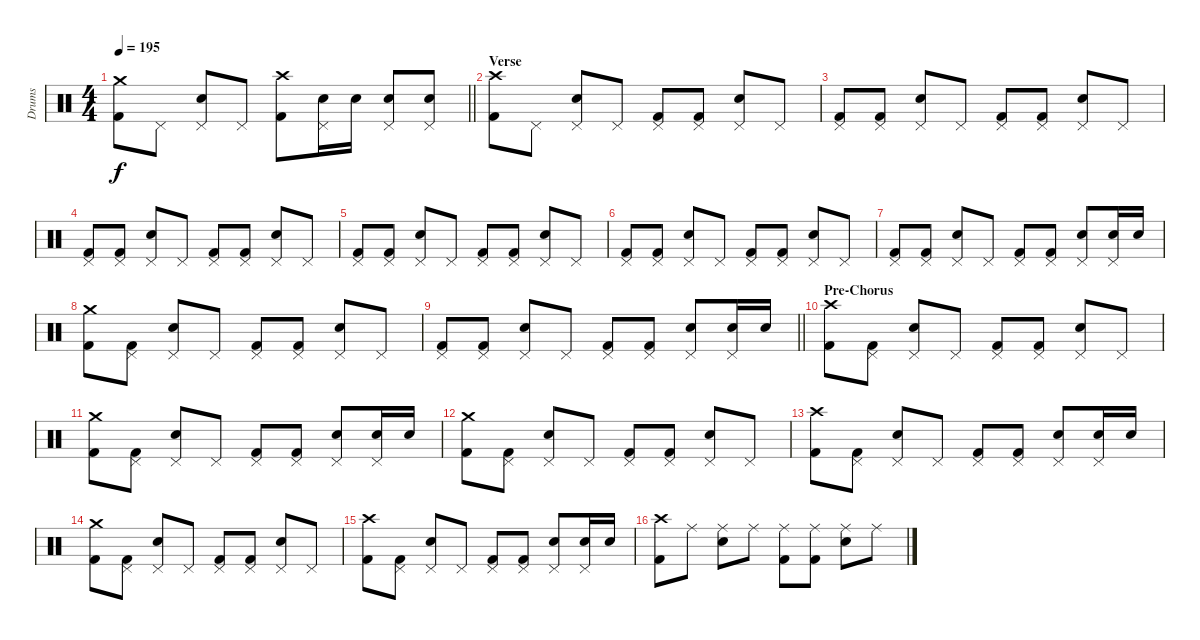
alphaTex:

\track ("Drums" "Drums") {instrument percussion}
\staff {score}
\articulation defaults
\ts (4 4)
\tempo 195
\clef neutral
\barLineRight lightlight
\ks c
("Crash medium (hit)" "Kick (hit) 2").8{dy f} "Pedal Hi-Hat (hit)".8 ("Pedal Hi-Hat (hit)" "Electric Snare (hit)").8 "Pedal Hi-Hat (hit)".8 ("Crash high (hit)" "Kick (hit) 2").8 ("Pedal Hi-Hat (hit)" "Electric Snare (hit)").16 "Electric Snare (hit)".16 ("Pedal Hi-Hat (hit)" "Electric Snare (hit)").8 ("Pedal Hi-Hat (hit)" "Electric Snare (hit)").8 |
\section ("" "Verse")
("Crash high (hit)" "Kick (hit) 2").8 "Pedal Hi-Hat (hit)".8 ("Pedal Hi-Hat (hit)" "Electric Snare (hit)").8 "Pedal Hi-Hat (hit)".8 ("Pedal Hi-Hat (hit)" "Kick (hit) 2").8 ("Pedal Hi-Hat (hit)" "Kick (hit) 2").8 ("Pedal Hi-Hat (hit)" "Electric Snare (hit)").8 "Pedal Hi-Hat (hit)".8 |
("Pedal Hi-Hat (hit)" "Kick (hit) 2").8 ("Pedal Hi-Hat (hit)" "Kick (hit) 2").8 ("Pedal Hi-Hat (hit)" "Electric Snare (hit)").8 "Pedal Hi-Hat (hit)".8 ("Pedal Hi-Hat (hit)" "Kick (hit) 2").8 ("Pedal Hi-Hat (hit)" "Kick (hit) 2").8 ("Pedal Hi-Hat (hit)" "Electric Snare (hit)").8 "Pedal Hi-Hat (hit)".8 |
("Pedal Hi-Hat (hit)" "Kick (hit) 2").8 ("Pedal Hi-Hat (hit)" "Kick (hit) 2").8 ("Pedal Hi-Hat (hit)" "Electric Snare (hit)").8 "Pedal Hi-Hat (hit)".8 ("Pedal Hi-Hat (hit)" "Kick (hit) 2").8 ("Pedal Hi-Hat (hit)" "Kick (hit) 2").8 ("Pedal Hi-Hat (hit)" "Electric Snare (hit)").8 "Pedal Hi-Hat (hit)".8 |
("Pedal Hi-Hat (hit)" "Kick (hit) 2").8 ("Pedal Hi-Hat (hit)" "Kick (hit) 2").8 ("Pedal Hi-Hat (hit)" "Electric Snare (hit)").8 "Pedal Hi-Hat (hit)".8 ("Pedal Hi-Hat (hit)" "Kick (hit) 2").8 ("Pedal Hi-Hat (hit)" "Kick (hit) 2").8 ("Pedal Hi-Hat (hit)" "Electric Snare (hit)").8 "Pedal Hi-Hat (hit)".8 |
("Pedal Hi-Hat (hit)" "Kick (hit) 2").8 ("Pedal Hi-Hat (hit)" "Kick (hit) 2").8 ("Pedal Hi-Hat (hit)" "Electric Snare (hit)").8 "Pedal Hi-Hat (hit)".8 ("Pedal Hi-Hat (hit)" "Kick (hit) 2").8 ("Pedal Hi-Hat (hit)" "Kick (hit) 2").8 ("Pedal Hi-Hat (hit)" "Electric Snare (hit)").8 "Pedal Hi-Hat (hit)".8 |
("Pedal Hi-Hat (hit)" "Kick (hit) 2").8 ("Pedal Hi-Hat (hit)" "Kick (hit) 2").8 ("Pedal Hi-Hat (hit)" "Electric Snare (hit)").8 "Pedal Hi-Hat (hit)".8 ("Pedal Hi-Hat (hit)" "Kick (hit) 2").8 ("Pedal Hi-Hat (hit)" "Kick (hit) 2").8 ("Pedal Hi-Hat (hit)" "Electric Snare (hit)").8 ("Pedal Hi-Hat (hit)" "Electric Snare (hit)").16 "Electric Snare (hit)".16 |
("Crash medium (hit)" "Kick (hit) 2").8 ("Pedal Hi-Hat (hit)" "Kick (hit) 2").8 ("Pedal Hi-Hat (hit)" "Electric Snare (hit)").8 "Pedal Hi-Hat (hit)".8 ("Pedal Hi-Hat (hit)" "Kick (hit) 2").8 ("Pedal Hi-Hat (hit)" "Kick (hit) 2").8 ("Pedal Hi-Hat (hit)" "Electric Snare (hit)").8 "Pedal Hi-Hat (hit)".8 |
\barLineRight lightlight
("Pedal Hi-Hat (hit)" "Kick (hit) 2").8 ("Pedal Hi-Hat (hit)" "Kick (hit) 2").8 ("Pedal Hi-Hat (hit)" "Electric Snare (hit)").8 "Pedal Hi-Hat (hit)".8 ("Pedal Hi-Hat (hit)" "Kick (hit) 2").8 ("Pedal Hi-Hat (hit)" "Kick (hit) 2").8 ("Pedal Hi-Hat (hit)" "Electric Snare (hit)").8 ("Pedal Hi-Hat (hit)" "Electric Snare (hit)").16 "Electric Snare (hit)".16 |
\section ("" "Pre-Chorus")
("Crash high (hit)" "Kick (hit) 2").8 ("Pedal Hi-Hat (hit)" "Kick (hit) 2").8 ("Pedal Hi-Hat (hit)" "Electric Snare (hit)").8 "Pedal Hi-Hat (hit)".8 ("Pedal Hi-Hat (hit)" "Kick (hit) 2").8 ("Pedal Hi-Hat (hit)" "Kick (hit) 2").8 ("Pedal Hi-Hat (hit)" "Electric Snare (hit)").8 "Pedal Hi-Hat (hit)".8 |
("Crash medium (hit)" "Kick (hit) 2").8 ("Pedal Hi-Hat (hit)" "Kick (hit) 2").8 ("Pedal Hi-Hat (hit)" "Electric Snare (hit)").8 "Pedal Hi-Hat (hit)".8 ("Pedal Hi-Hat (hit)" "Kick (hit) 2").8 ("Pedal Hi-Hat (hit)" "Kick (hit) 2").8 ("Pedal Hi-Hat (hit)" "Electric Snare (hit)").8 ("Pedal Hi-Hat (hit)" "Electric Snare (hit)").16 "Electric Snare (hit)".16 |
("Crash medium (hit)" "Kick (hit) 2").8 ("Pedal Hi-Hat (hit)" "Kick (hit) 2").8 ("Pedal Hi-Hat (hit)" "Electric Snare (hit)").8 "Pedal Hi-Hat (hit)".8 ("Pedal Hi-Hat (hit)" "Kick (hit) 2").8 ("Pedal Hi-Hat (hit)" "Kick (hit) 2").8 ("Pedal Hi-Hat (hit)" "Electric Snare (hit)").8 "Pedal Hi-Hat (hit)".8 |
("Crash high (hit)" "Kick (hit) 2").8 ("Pedal Hi-Hat (hit)" "Kick (hit) 2").8 ("Pedal Hi-Hat (hit)" "Electric Snare (hit)").8 "Pedal Hi-Hat (hit)".8 ("Pedal Hi-Hat (hit)" "Kick (hit) 2").8 ("Pedal Hi-Hat (hit)" "Kick (hit) 2").8 ("Pedal Hi-Hat (hit)" "Electric Snare (hit)").8 ("Pedal Hi-Hat (hit)" "Electric Snare (hit)").16 "Electric Snare (hit)".16 |
("Crash medium (hit)" "Kick (hit) 2").8 ("Pedal Hi-Hat (hit)" "Kick (hit) 2").8 ("Pedal Hi-Hat (hit)" "Electric Snare (hit)").8 "Pedal Hi-Hat (hit)".8 ("Pedal Hi-Hat (hit)" "Kick (hit) 2").8 ("Pedal Hi-Hat (hit)" "Kick (hit) 2").8 ("Pedal Hi-Hat (hit)" "Electric Snare (hit)").8 "Pedal Hi-Hat (hit)".8 |
("Crash high (hit)" "Kick (hit) 2").8 ("Pedal Hi-Hat (hit)" "Kick (hit) 2").8 ("Pedal Hi-Hat (hit)" "Electric Snare (hit)").8 "Pedal Hi-Hat (hit)".8 ("Pedal Hi-Hat (hit)" "Kick (hit) 2").8 ("Pedal Hi-Hat (hit)" "Kick (hit) 2").8 ("Pedal Hi-Hat (hit)" "Electric Snare (hit)").8 ("Pedal Hi-Hat (hit)" "Electric Snare (hit)").16 "Electric Snare (hit)".16 |
("Crash high (hit)" "Kick (hit) 2").8 "Ride (middle)".8 ("Ride (middle)" "Electric Snare (hit)").8 "Ride (middle)".8 ("Ride (middle)" "Kick (hit) 2").8 ("Ride (middle)" "Kick (hit) 2").8 ("Ride (middle)" "Electric Snare (hit)").8 "Ride (middle)".8
